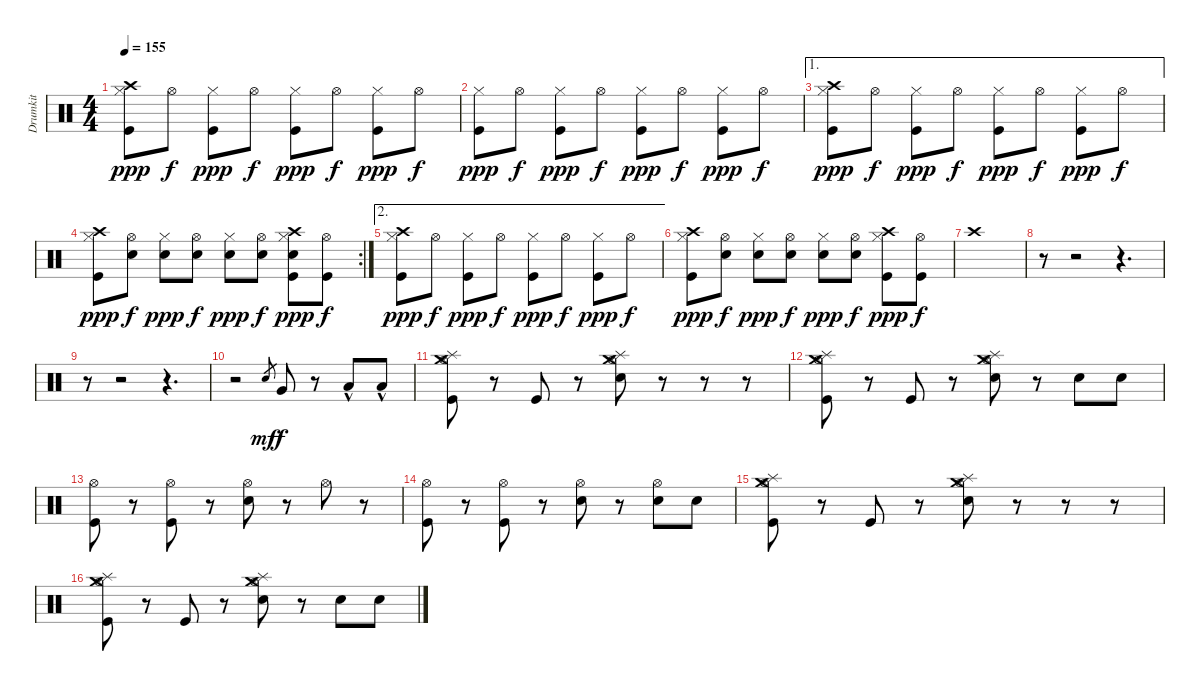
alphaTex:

\track ("Drumkit" "Drumkit") {instrument percussion}
\staff {score}
\articulation defaults
\ts (4 4)
\tempo 155
\clef neutral
\ks c
("Hi-Hat (closed)" "Crash high (hit)" "Kick (hit)").8{dy ppp} "Hi-Hat (open)".8{dy f} ("Hi-Hat (closed)" "Kick (hit)").8{dy ppp} "Hi-Hat (open)".8{dy f} ("Hi-Hat (closed)" "Kick (hit)").8{dy ppp} "Hi-Hat (open)".8{dy f} ("Hi-Hat (closed)" "Kick (hit)").8{dy ppp} "Hi-Hat (open)".8{dy f} |
("Hi-Hat (closed)" "Kick (hit)").8{dy ppp} "Hi-Hat (open)".8{dy f} ("Hi-Hat (closed)" "Kick (hit)").8{dy ppp} "Hi-Hat (open)".8{dy f} ("Hi-Hat (closed)" "Kick (hit)").8{dy ppp} "Hi-Hat (open)".8{dy f} ("Hi-Hat (closed)" "Kick (hit)").8{dy ppp} "Hi-Hat (open)".8{dy f} |
\ae 1
("Hi-Hat (closed)" "Crash high (hit)" "Kick (hit)").8{dy ppp} "Hi-Hat (open)".8{dy f} ("Hi-Hat (closed)" "Kick (hit)").8{dy ppp} "Hi-Hat (open)".8{dy f} ("Hi-Hat (closed)" "Kick (hit)").8{dy ppp} "Hi-Hat (open)".8{dy f} ("Hi-Hat (closed)" "Kick (hit)").8{dy ppp} "Hi-Hat (open)".8{dy f} |
\rc 2
("Hi-Hat (closed)" "Crash high (hit)" "Kick (hit)").8{dy ppp} ("Hi-Hat (open)" "Snare (hit) 2").8{dy f} ("Hi-Hat (closed)" "Snare (hit) 2").8{dy ppp} ("Hi-Hat (open)" "Snare (hit) 2").8{dy f} ("Hi-Hat (closed)" "Snare (hit) 2").8{dy ppp} ("Hi-Hat (open)" "Snare (hit) 2").8{dy f} ("Hi-Hat (closed)" "Crash high (hit)" "Kick (hit)" "Snare (hit) 2").8{dy ppp} ("Hi-Hat (open)" "Kick (hit)").8{dy f} |
\ae 2
("Hi-Hat (closed)" "Crash high (hit)" "Kick (hit)").8{dy ppp} "Hi-Hat (open)".8{dy f} ("Hi-Hat (closed)" "Kick (hit)").8{dy ppp} "Hi-Hat (open)".8{dy f} ("Hi-Hat (closed)" "Kick (hit)").8{dy ppp} "Hi-Hat (open)".8{dy f} ("Hi-Hat (closed)" "Kick (hit)").8{dy ppp} "Hi-Hat (open)".8{dy f} |
("Hi-Hat (closed)" "Crash high (hit)" "Kick (hit)").8{dy ppp} ("Hi-Hat (open)" "Snare (hit) 2").8{dy f} ("Hi-Hat (closed)" "Snare (hit) 2").8{dy ppp} ("Hi-Hat (open)" "Snare (hit) 2").8{dy f} ("Hi-Hat (closed)" "Snare (hit) 2").8{dy ppp} ("Hi-Hat (open)" "Snare (hit) 2").8{dy f} ("Hi-Hat (closed)" "Crash high (hit)" "Kick (hit)").8{dy ppp} ("Hi-Hat (open)" "Kick (hit)").8{dy f} |
"Crash high (hit)".1 |
r.8 r.2 r.4{d} |
r.8 r.2 r.4{d} |
r.2 "Snare (hit)".8{gr dy mf} "Very Low Tom (hit)".8{dy f} r.8 "Low Floor Tom (hit)"{hac}.8 "Low Floor Tom (hit)"{hac}.8 |
("Hi-Hat (open)" "Splash (hit)" "Crash medium (hit)" "Kick (hit)").8 r.8 "Kick (hit)".8 r.8 ("Hi-Hat (open)" "Splash (hit)" "Crash medium (hit)" "Snare (hit) 2").8 r.8 r.8 r.8 |
("Hi-Hat (open)" "Splash (hit)" "Crash medium (hit)" "Kick (hit)").8 r.8 "Kick (hit)".8 r.8 ("Hi-Hat (open)" "Splash (hit)" "Crash medium (hit)" "Snare (hit) 2").8 r.8 "Snare (hit) 2".8 "Snare (hit) 2".8 |
("Hi-Hat (open)" "Kick (hit)").8 r.8 ("Hi-Hat (open)" "Kick (hit)").8 r.8 ("Hi-Hat (open)" "Snare (hit) 2").8 r.8 "Hi-Hat (open)".8 r.8 |
("Hi-Hat (open)" "Kick (hit)").8 r.8 ("Hi-Hat (open)" "Kick (hit)").8 r.8 ("Hi-Hat (open)" "Snare (hit) 2").8 r.8 ("Hi-Hat (open)" "Snare (hit) 2").8 "Snare (hit) 2".8 |
("Hi-Hat (open)" "Splash (hit)" "Crash medium (hit)" "Kick (hit)").8 r.8 "Kick (hit)".8 r.8 ("Hi-Hat (open)" "Splash (hit)" "Crash medium (hit)" "Snare (hit) 2").8 r.8 r.8 r.8 |
("Hi-Hat (open)" "Splash (hit)" "Crash medium (hit)" "Kick (hit)").8 r.8 "Kick (hit)".8 r.8 ("Hi-Hat (open)" "Splash (hit)" "Crash medium (hit)" "Snare (hit) 2").8 r.8 "Snare (hit) 2".8 "Snare (hit) 2".8
